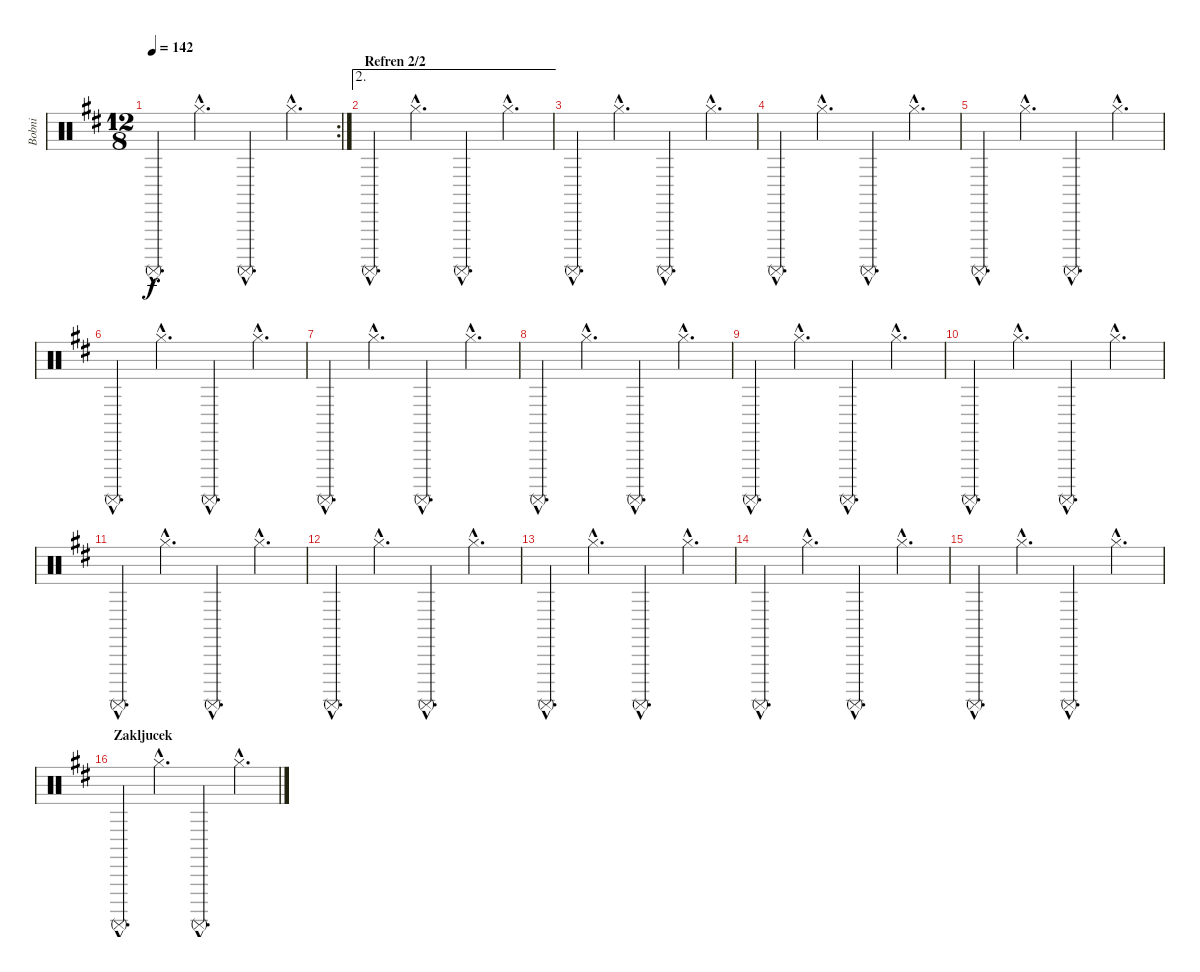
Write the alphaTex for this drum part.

\track ("Bobni" "Bobni") {instrument percussion}
\staff {score}
\articulation defaults
\rc 2
\ts (12 8)
\tempo 142
\clef neutral
\ks d "Surdo (mute)"{hac}.4{d dy f} "Hi-Hat (closed)"{hac}.4{d} "Surdo (mute)"{hac}.4{d} "Hi-Hat (closed)"{hac}.4{d}
|
\ae 2
\section ("" "Refren 2/2")
"Surdo (mute)"{hac}.4{d} "Hi-Hat (closed)"{hac}.4{d} "Surdo (mute)"{hac}.4{d} "Hi-Hat (closed)"{hac}.4{d} |
"Surdo (mute)"{hac}.4{d} "Hi-Hat (closed)"{hac}.4{d} "Surdo (mute)"{hac}.4{d} "Hi-Hat (closed)"{hac}.4{d} |
"Surdo (mute)"{hac}.4{d} "Hi-Hat (closed)"{hac}.4{d} "Surdo (mute)"{hac}.4{d} "Hi-Hat (closed)"{hac}.4{d} |
"Surdo (mute)"{hac}.4{d} "Hi-Hat (closed)"{hac}.4{d} "Surdo (mute)"{hac}.4{d} "Hi-Hat (closed)"{hac}.4{d} |
"Surdo (mute)"{hac}.4{d} "Hi-Hat (closed)"{hac}.4{d} "Surdo (mute)"{hac}.4{d} "Hi-Hat (closed)"{hac}.4{d} |
"Surdo (mute)"{hac}.4{d} "Hi-Hat (closed)"{hac}.4{d} "Surdo (mute)"{hac}.4{d} "Hi-Hat (closed)"{hac}.4{d} |
"Surdo (mute)"{hac}.4{d} "Hi-Hat (closed)"{hac}.4{d} "Surdo (mute)"{hac}.4{d} "Hi-Hat (closed)"{hac}.4{d} |
"Surdo (mute)"{hac}.4{d} "Hi-Hat (closed)"{hac}.4{d} "Surdo (mute)"{hac}.4{d} "Hi-Hat (closed)"{hac}.4{d} |
"Surdo (mute)"{hac}.4{d} "Hi-Hat (closed)"{hac}.4{d} "Surdo (mute)"{hac}.4{d} "Hi-Hat (closed)"{hac}.4{d} |
"Surdo (mute)"{hac}.4{d} "Hi-Hat (closed)"{hac}.4{d} "Surdo (mute)"{hac}.4{d} "Hi-Hat (closed)"{hac}.4{d} |
"Surdo (mute)"{hac}.4{d} "Hi-Hat (closed)"{hac}.4{d} "Surdo (mute)"{hac}.4{d} "Hi-Hat (closed)"{hac}.4{d} |
"Surdo (mute)"{hac}.4{d} "Hi-Hat (closed)"{hac}.4{d} "Surdo (mute)"{hac}.4{d} "Hi-Hat (closed)"{hac}.4{d} |
"Surdo (mute)"{hac}.4{d} "Hi-Hat (closed)"{hac}.4{d} "Surdo (mute)"{hac}.4{d} "Hi-Hat (closed)"{hac}.4{d} |
"Surdo (mute)"{hac}.4{d} "Hi-Hat (closed)"{hac}.4{d} "Surdo (mute)"{hac}.4{d} "Hi-Hat (closed)"{hac}.4{d} |
\section ("" "Zakljucek")
"Surdo (mute)"{hac}.4{d} "Hi-Hat (closed)"{hac}.4{d} "Surdo (mute)"{hac}.4{d} "Hi-Hat (closed)"{hac}.4{d}
